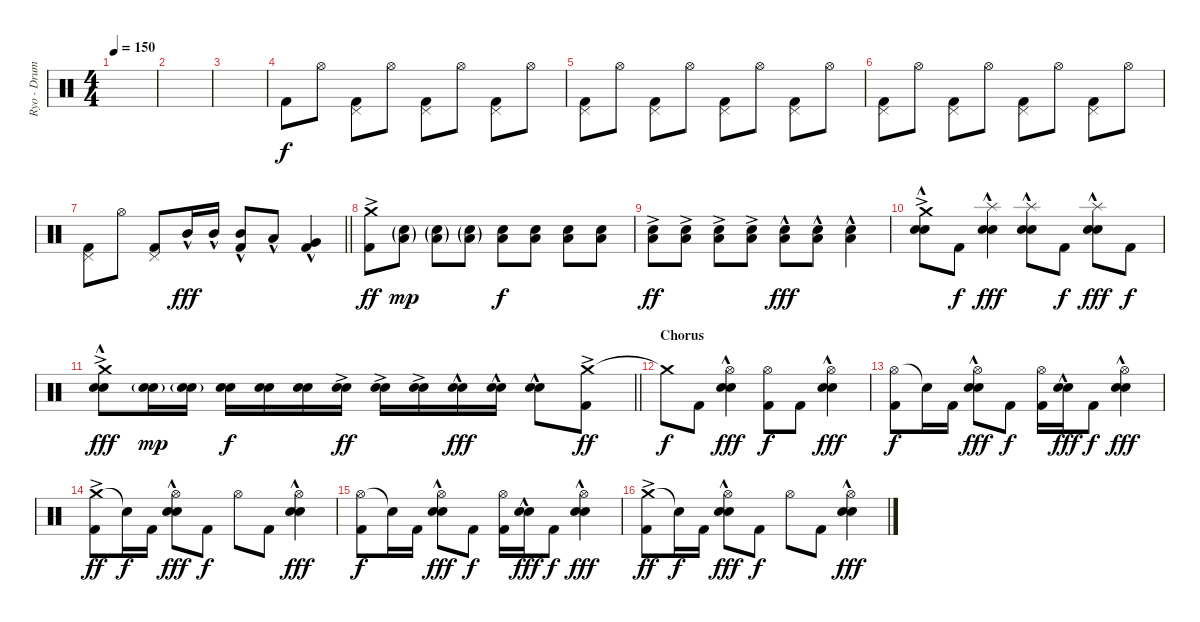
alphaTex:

\track ("Ryo - Drums" "Ryo - Drum") {instrument percussion}
\staff {score}
\articulation defaults
\ts (4 4)
\tempo 150
\clef neutral
\ks c
|
|
|
"Kick (hit) 2".8{dy f} "Hi-Hat (open)".8 ("Pedal Hi-Hat (hit)" "Kick (hit) 2").8 "Hi-Hat (open)".8 ("Pedal Hi-Hat (hit)" "Kick (hit) 2").8 "Hi-Hat (open)".8 ("Pedal Hi-Hat (hit)" "Kick (hit) 2").8 "Hi-Hat (open)".8 |
("Pedal Hi-Hat (hit)" "Kick (hit) 2").8 "Hi-Hat (open)".8 ("Pedal Hi-Hat (hit)" "Kick (hit) 2").8 "Hi-Hat (open)".8 ("Pedal Hi-Hat (hit)" "Kick (hit) 2").8 "Hi-Hat (open)".8 ("Pedal Hi-Hat (hit)" "Kick (hit) 2").8 "Hi-Hat (open)".8 |
("Pedal Hi-Hat (hit)" "Kick (hit) 2").8 "Hi-Hat (open)".8 ("Pedal Hi-Hat (hit)" "Kick (hit) 2").8 "Hi-Hat (open)".8 ("Pedal Hi-Hat (hit)" "Kick (hit) 2").8 "Hi-Hat (open)".8 ("Pedal Hi-Hat (hit)" "Kick (hit) 2").8 "Hi-Hat (open)".8 |
\barLineRight lightlight
("Pedal Hi-Hat (hit)" "Kick (hit) 2").8 "Hi-Hat (open)".8 ("Pedal Hi-Hat (hit)" "Kick (hit) 2").8 "Mid Tom (hit)"{hac}.16{dy fff} "Mid Tom (hit)"{hac}.16 ("Mid Tom (hit)"{hac} "Kick (hit) 2").8 "Low Tom (hit)"{hac}.8 ("Very Low Tom (hit)"{hac} "Kick (hit) 2").4 |
("Crash medium (hit)"{ac} "Kick (hit) 2").8{dy ff} ("Electric Snare (hit)"{g} "Low Tom (hit)"{g}).8{dy mp} ("Electric Snare (hit)"{g} "Low Tom (hit)"{g}).8 ("Electric Snare (hit)"{g} "Low Tom (hit)"{g}).8 ("Electric Snare (hit)" "Low Tom (hit)").8{dy f} ("Electric Snare (hit)" "Low Tom (hit)").8 ("Electric Snare (hit)" "Low Tom (hit)").8 ("Electric Snare (hit)" "Low Tom (hit)").8 |
("Electric Snare (hit)"{ac} "Low Tom (hit)"{ac}).8{dy ff} ("Electric Snare (hit)"{ac} "Low Tom (hit)"{ac}).8 ("Electric Snare (hit)"{ac} "Low Tom (hit)"{ac}).8 ("Electric Snare (hit)"{ac} "Low Tom (hit)"{ac}).8 ("Electric Snare (hit)"{hac} "Low Tom (hit)"{hac}).8{dy fff} ("Electric Snare (hit)"{hac} "Low Tom (hit)"{hac}).8 ("Electric Snare (hit)"{hac} "Low Tom (hit)"{hac}).4 |
("Crash medium (hit)"{ac} "Electric Snare (hit)"{hac} "Snare (hit) 2"{hac}).8 "Kick (hit) 2".8{dy f} ("Splash (hit)"{hac} "Electric Snare (hit)"{hac} "Snare (hit) 2"{hac}).4{dy fff} ("Splash (hit)"{hac} "Electric Snare (hit)"{hac} "Snare (hit) 2"{hac}).8 "Kick (hit) 2".8{dy f} ("Splash (hit)"{hac} "Electric Snare (hit)"{hac} "Snare (hit) 2"{hac}).8{dy fff} "Kick (hit) 2".8{dy f} |
\barLineRight lightlight
("Crash medium (hit)"{ac} "Electric Snare (hit)"{hac} "Snare (hit) 2"{hac}).8{dy fff} ("Electric Snare (hit)"{g} "Snare (hit) 2"{g}).16{dy mp} ("Electric Snare (hit)"{g} "Snare (hit) 2"{g}).16 ("Electric Snare (hit)" "Snare (hit) 2").16{dy f} ("Electric Snare (hit)" "Snare (hit) 2").16 ("Electric Snare (hit)" "Snare (hit) 2").16 ("Electric Snare (hit)"{ac} "Snare (hit) 2"{ac}).16{dy ff} ("Electric Snare (hit)"{ac} "Snare (hit) 2"{ac}).16 ("Electric Snare (hit)"{ac} "Snare (hit) 2"{ac}).16 ("Electric Snare (hit)"{hac} "Snare (hit) 2"{hac}).16{dy fff} ("Electric Snare (hit)"{hac} "Snare (hit) 2"{hac}).16 ("Electric Snare (hit)"{hac} "Snare (hit) 2"{hac}).8 ("Crash medium (hit)"{ac} "Kick (hit) 2").8{dy ff} |
\section ("" "Chorus")
"Crash medium (hit)"{t}.8{dy f} "Kick (hit) 2".8 ("Hi-Hat (open)" "Electric Snare (hit)"{hac} "Snare (hit) 2"{hac}).4{dy fff} ("Hi-Hat (open)" "Kick (hit) 2").8{dy f} "Kick (hit) 2".8 ("Hi-Hat (open)" "Electric Snare (hit)"{hac} "Snare (hit) 2"{hac}).4{dy fff} |
("Hi-Hat (open)" "Kick (hit) 2").8{dy f} "Snare (hit)"{t}.16 "Kick (hit) 2".16 ("Hi-Hat (open)" "Electric Snare (hit)"{hac} "Snare (hit) 2"{hac}).8{dy fff} "Kick (hit) 2".8{dy f} ("Hi-Hat (open)" "Kick (hit) 2").16 ("Electric Snare (hit)"{hac} "Snare (hit) 2"{hac}).16{dy fff} "Kick (hit) 2".8{dy f} ("Hi-Hat (open)" "Electric Snare (hit)"{hac} "Snare (hit) 2"{hac}).4{dy fff} |
("Crash medium (hit)"{ac} "Kick (hit) 2").8{dy ff} "Snare (hit)"{t}.16{dy f} "Kick (hit) 2".16 ("Hi-Hat (open)" "Electric Snare (hit)"{hac} "Snare (hit) 2"{hac}).8{dy fff} "Kick (hit) 2".8{dy f} "Hi-Hat (open)".8 "Kick (hit) 2".8 ("Hi-Hat (open)" "Electric Snare (hit)"{hac} "Snare (hit) 2"{hac}).4{dy fff} |
("Hi-Hat (open)" "Kick (hit) 2").8{dy f} "Snare (hit)"{t}.16 "Kick (hit) 2".16 ("Hi-Hat (open)" "Electric Snare (hit)"{hac} "Snare (hit) 2"{hac}).8{dy fff} "Kick (hit) 2".8{dy f} ("Hi-Hat (open)" "Kick (hit) 2").16 ("Electric Snare (hit)"{hac} "Snare (hit) 2"{hac}).16{dy fff} "Kick (hit) 2".8{dy f} ("Hi-Hat (open)" "Electric Snare (hit)"{hac} "Snare (hit) 2"{hac}).4{dy fff} |
("Crash medium (hit)"{ac} "Kick (hit) 2").8{dy ff} "Snare (hit)"{t}.16{dy f} "Kick (hit) 2".16 ("Hi-Hat (open)" "Electric Snare (hit)"{hac} "Snare (hit) 2"{hac}).8{dy fff} "Kick (hit) 2".8{dy f} "Hi-Hat (open)".8 "Kick (hit) 2".8 ("Hi-Hat (open)" "Electric Snare (hit)"{hac} "Snare (hit) 2"{hac}).4{dy fff}
